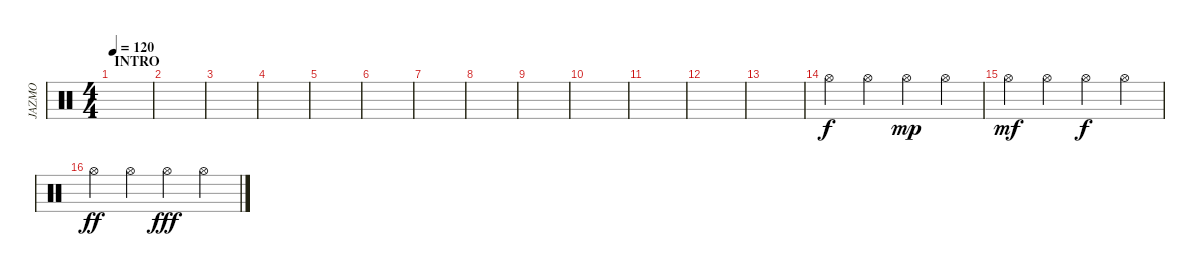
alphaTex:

\track ("JAZMO" "JAZMO") {instrument percussion}
\staff {score}
\articulation defaults
\ts (4 4)
\section ("" "INTRO")
\tempo 120
\clef neutral
\ks c
|
|
|
|
|
|
|
|
|
|
|
|
|
"Hi-Hat (open)".4 "Hi-Hat (open)".4 "Hi-Hat (open)".4{dy mp} "Hi-Hat (open)".4 |
"Hi-Hat (open)".4{dy mf} "Hi-Hat (open)".4 "Hi-Hat (open)".4{dy f} "Hi-Hat (open)".4 |
"Hi-Hat (open)".4{dy ff} "Hi-Hat (open)".4 "Hi-Hat (open)".4{dy fff} "Hi-Hat (open)".4
